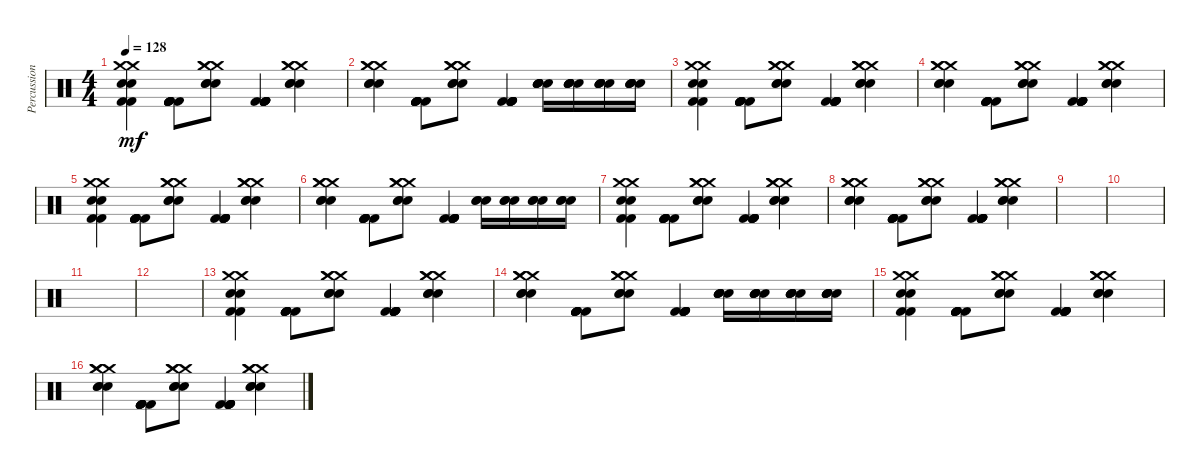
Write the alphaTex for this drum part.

\track ("Percussion" "Percussion") {instrument percussion}
\staff {score}
\articulation defaults
\ts (4 4)
\tempo 128
\clef neutral
\ks c
("Snare (hit) 2" "Snare (hit) 2" "Kick (hit) 2" "Kick (hit) 2" "Crash medium (hit)" "Crash medium (hit)").4{dy mf} ("Kick (hit) 2" "Kick (hit) 2" "Kick (hit) 2" "Kick (hit) 2" "Kick (hit) 2" "Kick (hit) 2").8 ("Snare (hit) 2" "Crash medium (hit)" "Snare (hit) 2" "Crash medium (hit)" "Snare (hit) 2" "Crash medium (hit)").8 ("Kick (hit) 2" "Kick (hit) 2" "Kick (hit) 2" "Kick (hit) 2" "Kick (hit) 2" "Kick (hit) 2").4 ("Snare (hit) 2" "Crash medium (hit)" "Snare (hit) 2" "Crash medium (hit)" "Snare (hit) 2" "Crash medium (hit)").4 |
("Snare (hit) 2" "Crash medium (hit)" "Snare (hit) 2" "Crash medium (hit)" "Snare (hit) 2" "Crash medium (hit)").4 ("Kick (hit) 2" "Kick (hit) 2" "Kick (hit) 2" "Kick (hit) 2" "Kick (hit) 2" "Kick (hit) 2").8 ("Snare (hit) 2" "Crash medium (hit)" "Snare (hit) 2" "Crash medium (hit)" "Snare (hit) 2" "Crash medium (hit)").8 ("Kick (hit) 2" "Kick (hit) 2" "Kick (hit) 2" "Kick (hit) 2" "Kick (hit) 2" "Kick (hit) 2").4 ("Snare (hit) 2" "Snare (hit) 2" "Snare (hit) 2" "Snare (hit) 2" "Snare (hit) 2").16 ("Snare (hit) 2" "Snare (hit) 2" "Snare (hit) 2" "Snare (hit) 2" "Snare (hit) 2").16 ("Snare (hit) 2" "Snare (hit) 2" "Snare (hit) 2" "Snare (hit) 2" "Snare (hit) 2").16 ("Snare (hit) 2" "Snare (hit) 2" "Snare (hit) 2" "Snare (hit) 2" "Snare (hit) 2").16 |
("Snare (hit) 2" "Snare (hit) 2" "Kick (hit) 2" "Kick (hit) 2" "Crash medium (hit)" "Crash medium (hit)").4 ("Kick (hit) 2" "Kick (hit) 2" "Kick (hit) 2" "Kick (hit) 2" "Kick (hit) 2" "Kick (hit) 2").8 ("Snare (hit) 2" "Crash medium (hit)" "Snare (hit) 2" "Crash medium (hit)" "Snare (hit) 2" "Crash medium (hit)").8 ("Kick (hit) 2" "Kick (hit) 2" "Kick (hit) 2" "Kick (hit) 2" "Kick (hit) 2" "Kick (hit) 2").4 ("Snare (hit) 2" "Crash medium (hit)" "Snare (hit) 2" "Crash medium (hit)" "Snare (hit) 2" "Crash medium (hit)").4 |
("Snare (hit) 2" "Crash medium (hit)" "Snare (hit) 2" "Crash medium (hit)" "Snare (hit) 2" "Crash medium (hit)").4 ("Kick (hit) 2" "Kick (hit) 2" "Kick (hit) 2" "Kick (hit) 2" "Kick (hit) 2" "Kick (hit) 2").8 ("Snare (hit) 2" "Crash medium (hit)" "Snare (hit) 2" "Crash medium (hit)" "Snare (hit) 2" "Crash medium (hit)").8 ("Kick (hit) 2" "Kick (hit) 2" "Kick (hit) 2" "Kick (hit) 2" "Kick (hit) 2" "Kick (hit) 2").4 ("Snare (hit) 2" "Crash medium (hit)" "Snare (hit) 2" "Crash medium (hit)" "Snare (hit) 2" "Crash medium (hit)").4 |
("Snare (hit) 2" "Snare (hit) 2" "Kick (hit) 2" "Kick (hit) 2" "Crash medium (hit)" "Crash medium (hit)").4 ("Kick (hit) 2" "Kick (hit) 2" "Kick (hit) 2" "Kick (hit) 2" "Kick (hit) 2" "Kick (hit) 2").8 ("Snare (hit) 2" "Crash medium (hit)" "Snare (hit) 2" "Crash medium (hit)" "Snare (hit) 2" "Crash medium (hit)").8 ("Kick (hit) 2" "Kick (hit) 2" "Kick (hit) 2" "Kick (hit) 2" "Kick (hit) 2" "Kick (hit) 2").4 ("Snare (hit) 2" "Crash medium (hit)" "Snare (hit) 2" "Crash medium (hit)" "Snare (hit) 2" "Crash medium (hit)").4 |
("Snare (hit) 2" "Crash medium (hit)" "Snare (hit) 2" "Crash medium (hit)" "Snare (hit) 2" "Crash medium (hit)").4 ("Kick (hit) 2" "Kick (hit) 2" "Kick (hit) 2" "Kick (hit) 2" "Kick (hit) 2" "Kick (hit) 2").8 ("Snare (hit) 2" "Crash medium (hit)" "Snare (hit) 2" "Crash medium (hit)" "Snare (hit) 2" "Crash medium (hit)").8 ("Kick (hit) 2" "Kick (hit) 2" "Kick (hit) 2" "Kick (hit) 2" "Kick (hit) 2" "Kick (hit) 2").4 ("Snare (hit) 2" "Snare (hit) 2" "Snare (hit) 2").16 ("Snare (hit) 2" "Snare (hit) 2" "Snare (hit) 2").16 ("Snare (hit) 2" "Snare (hit) 2" "Snare (hit) 2").16 ("Snare (hit) 2" "Snare (hit) 2" "Snare (hit) 2").16 |
("Snare (hit) 2" "Snare (hit) 2" "Kick (hit) 2" "Kick (hit) 2" "Crash medium (hit)" "Crash medium (hit)").4 ("Kick (hit) 2" "Kick (hit) 2" "Kick (hit) 2" "Kick (hit) 2" "Kick (hit) 2" "Kick (hit) 2").8 ("Snare (hit) 2" "Crash medium (hit)" "Snare (hit) 2" "Crash medium (hit)" "Snare (hit) 2" "Crash medium (hit)").8 ("Kick (hit) 2" "Kick (hit) 2" "Kick (hit) 2" "Kick (hit) 2" "Kick (hit) 2" "Kick (hit) 2").4 ("Snare (hit) 2" "Crash medium (hit)" "Snare (hit) 2" "Crash medium (hit)" "Snare (hit) 2" "Crash medium (hit)").4 |
("Snare (hit) 2" "Crash medium (hit)" "Snare (hit) 2" "Crash medium (hit)" "Snare (hit) 2" "Crash medium (hit)").4 ("Kick (hit) 2" "Kick (hit) 2" "Kick (hit) 2" "Kick (hit) 2" "Kick (hit) 2" "Kick (hit) 2").8 ("Snare (hit) 2" "Crash medium (hit)" "Snare (hit) 2" "Crash medium (hit)" "Snare (hit) 2" "Crash medium (hit)").8 ("Kick (hit) 2" "Kick (hit) 2" "Kick (hit) 2" "Kick (hit) 2" "Kick (hit) 2" "Kick (hit) 2").4 ("Snare (hit) 2" "Crash medium (hit)" "Snare (hit) 2" "Crash medium (hit)" "Snare (hit) 2" "Crash medium (hit)").4 |
|
|
|
|
("Snare (hit) 2" "Snare (hit) 2" "Kick (hit) 2" "Kick (hit) 2" "Crash medium (hit)" "Crash medium (hit)").4 ("Kick (hit) 2" "Kick (hit) 2" "Kick (hit) 2" "Kick (hit) 2" "Kick (hit) 2" "Kick (hit) 2").8 ("Snare (hit) 2" "Crash medium (hit)" "Snare (hit) 2" "Crash medium (hit)" "Snare (hit) 2" "Crash medium (hit)").8 ("Kick (hit) 2" "Kick (hit) 2" "Kick (hit) 2" "Kick (hit) 2" "Kick (hit) 2" "Kick (hit) 2").4 ("Snare (hit) 2" "Crash medium (hit)" "Snare (hit) 2" "Crash medium (hit)" "Snare (hit) 2" "Crash medium (hit)").4 |
("Snare (hit) 2" "Crash medium (hit)" "Snare (hit) 2" "Crash medium (hit)" "Snare (hit) 2" "Crash medium (hit)").4 ("Kick (hit) 2" "Kick (hit) 2" "Kick (hit) 2" "Kick (hit) 2" "Kick (hit) 2" "Kick (hit) 2").8 ("Snare (hit) 2" "Crash medium (hit)" "Snare (hit) 2" "Crash medium (hit)" "Snare (hit) 2" "Crash medium (hit)").8 ("Kick (hit) 2" "Kick (hit) 2" "Kick (hit) 2" "Kick (hit) 2" "Kick (hit) 2" "Kick (hit) 2").4 ("Snare (hit) 2" "Snare (hit) 2" "Snare (hit) 2" "Snare (hit) 2" "Snare (hit) 2").16 ("Snare (hit) 2" "Snare (hit) 2" "Snare (hit) 2" "Snare (hit) 2" "Snare (hit) 2").16 ("Snare (hit) 2" "Snare (hit) 2" "Snare (hit) 2" "Snare (hit) 2" "Snare (hit) 2").16 ("Snare (hit) 2" "Snare (hit) 2" "Snare (hit) 2" "Snare (hit) 2" "Snare (hit) 2").16 |
("Snare (hit) 2" "Snare (hit) 2" "Kick (hit) 2" "Kick (hit) 2" "Crash medium (hit)" "Crash medium (hit)").4 ("Kick (hit) 2" "Kick (hit) 2" "Kick (hit) 2" "Kick (hit) 2" "Kick (hit) 2" "Kick (hit) 2").8 ("Snare (hit) 2" "Crash medium (hit)" "Snare (hit) 2" "Crash medium (hit)" "Snare (hit) 2" "Crash medium (hit)").8 ("Kick (hit) 2" "Kick (hit) 2" "Kick (hit) 2" "Kick (hit) 2" "Kick (hit) 2" "Kick (hit) 2").4 ("Snare (hit) 2" "Crash medium (hit)" "Snare (hit) 2" "Crash medium (hit)" "Snare (hit) 2" "Crash medium (hit)").4 |
("Snare (hit) 2" "Crash medium (hit)" "Snare (hit) 2" "Crash medium (hit)" "Snare (hit) 2" "Crash medium (hit)").4 ("Kick (hit) 2" "Kick (hit) 2" "Kick (hit) 2" "Kick (hit) 2" "Kick (hit) 2" "Kick (hit) 2").8 ("Snare (hit) 2" "Crash medium (hit)" "Snare (hit) 2" "Crash medium (hit)" "Snare (hit) 2" "Crash medium (hit)").8 ("Kick (hit) 2" "Kick (hit) 2" "Kick (hit) 2" "Kick (hit) 2" "Kick (hit) 2" "Kick (hit) 2").4 ("Snare (hit) 2" "Crash medium (hit)" "Snare (hit) 2" "Crash medium (hit)" "Snare (hit) 2" "Crash medium (hit)").4
